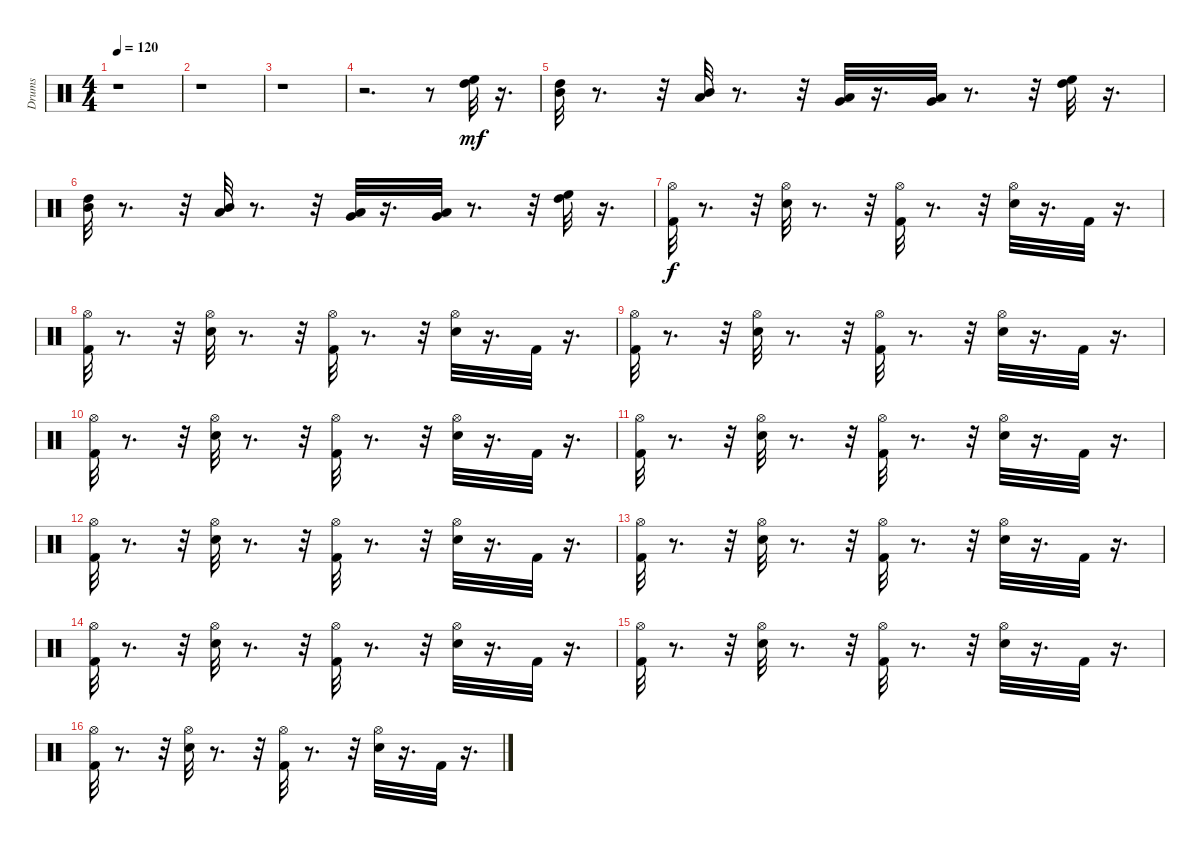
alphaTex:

\track ("Drums" "Drums") {instrument percussion}
\staff {score}
\articulation defaults
\ts (4 4)
\tempo 120
\clef neutral
\ks c
r.1{dy mf} |
r.1 |
r.1 |
r.2{d} r.8 ("High Tom (hit)" "High Floor Tom (hit)").32 r.16{d} |
("Mid Tom (hit)" "High Tom (hit)").32 r.8{d} r.32 ("Low Tom (hit)" "Mid Tom (hit)").32 r.8{d} r.32 ("Very Low Tom (hit)" "Low Tom (hit)").32 r.16{d} ("Low Floor Tom (hit)" "Very Low Tom (hit)").32 r.8{d} r.32 ("High Tom (hit)" "High Floor Tom (hit)").32 r.16{d} |
("Mid Tom (hit)" "High Tom (hit)").32 r.8{d} r.32 ("Low Tom (hit)" "Mid Tom (hit)").32 r.8{d} r.32 ("Very Low Tom (hit)" "Low Tom (hit)").32 r.16{d} ("Low Floor Tom (hit)" "Very Low Tom (hit)").32 r.8{d} r.32 ("High Tom (hit)" "High Floor Tom (hit)").32 r.16{d} |
("Kick (hit) 2" "Hi-Hat (open)").32{dy f} r.8{d} r.32 ("Snare (hit) 2" "Hi-Hat (open)").32 r.8{d} r.32 ("Kick (hit) 2" "Hi-Hat (open)").32 r.8{d} r.32 ("Snare (hit) 2" "Hi-Hat (open)").32 r.16{d} "Kick (hit) 2".32 r.16{d} |
("Kick (hit) 2" "Hi-Hat (open)").32 r.8{d} r.32 ("Snare (hit) 2" "Hi-Hat (open)").32 r.8{d} r.32 ("Kick (hit) 2" "Hi-Hat (open)").32 r.8{d} r.32 ("Snare (hit) 2" "Hi-Hat (open)").32 r.16{d} "Kick (hit) 2".32 r.16{d} |
("Kick (hit) 2" "Hi-Hat (open)").32 r.8{d} r.32 ("Snare (hit) 2" "Hi-Hat (open)").32 r.8{d} r.32 ("Kick (hit) 2" "Hi-Hat (open)").32 r.8{d} r.32 ("Snare (hit) 2" "Hi-Hat (open)").32 r.16{d} "Kick (hit) 2".32 r.16{d} |
("Kick (hit) 2" "Hi-Hat (open)").32 r.8{d} r.32 ("Snare (hit) 2" "Hi-Hat (open)").32 r.8{d} r.32 ("Kick (hit) 2" "Hi-Hat (open)").32 r.8{d} r.32 ("Snare (hit) 2" "Hi-Hat (open)").32 r.16{d} "Kick (hit) 2".32 r.16{d} |
("Kick (hit) 2" "Hi-Hat (open)").32 r.8{d} r.32 ("Snare (hit) 2" "Hi-Hat (open)").32 r.8{d} r.32 ("Kick (hit) 2" "Hi-Hat (open)").32 r.8{d} r.32 ("Snare (hit) 2" "Hi-Hat (open)").32 r.16{d} "Kick (hit) 2".32 r.16{d} |
("Kick (hit) 2" "Hi-Hat (open)").32 r.8{d} r.32 ("Snare (hit) 2" "Hi-Hat (open)").32 r.8{d} r.32 ("Kick (hit) 2" "Hi-Hat (open)").32 r.8{d} r.32 ("Snare (hit) 2" "Hi-Hat (open)").32 r.16{d} "Kick (hit) 2".32 r.16{d} |
("Kick (hit) 2" "Hi-Hat (open)").32 r.8{d} r.32 ("Snare (hit) 2" "Hi-Hat (open)").32 r.8{d} r.32 ("Kick (hit) 2" "Hi-Hat (open)").32 r.8{d} r.32 ("Snare (hit) 2" "Hi-Hat (open)").32 r.16{d} "Kick (hit) 2".32 r.16{d} |
("Kick (hit) 2" "Hi-Hat (open)").32 r.8{d} r.32 ("Snare (hit) 2" "Hi-Hat (open)").32 r.8{d} r.32 ("Kick (hit) 2" "Hi-Hat (open)").32 r.8{d} r.32 ("Snare (hit) 2" "Hi-Hat (open)").32 r.16{d} "Kick (hit) 2".32 r.16{d} |
("Kick (hit) 2" "Hi-Hat (open)").32 r.8{d} r.32 ("Snare (hit) 2" "Hi-Hat (open)").32 r.8{d} r.32 ("Kick (hit) 2" "Hi-Hat (open)").32 r.8{d} r.32 ("Snare (hit) 2" "Hi-Hat (open)").32 r.16{d} "Kick (hit) 2".32 r.16{d} |
("Kick (hit) 2" "Hi-Hat (open)").32 r.8{d} r.32 ("Snare (hit) 2" "Hi-Hat (open)").32 r.8{d} r.32 ("Kick (hit) 2" "Hi-Hat (open)").32 r.8{d} r.32 ("Snare (hit) 2" "Hi-Hat (open)").32 r.16{d} "Kick (hit) 2".32 r.16{d}
